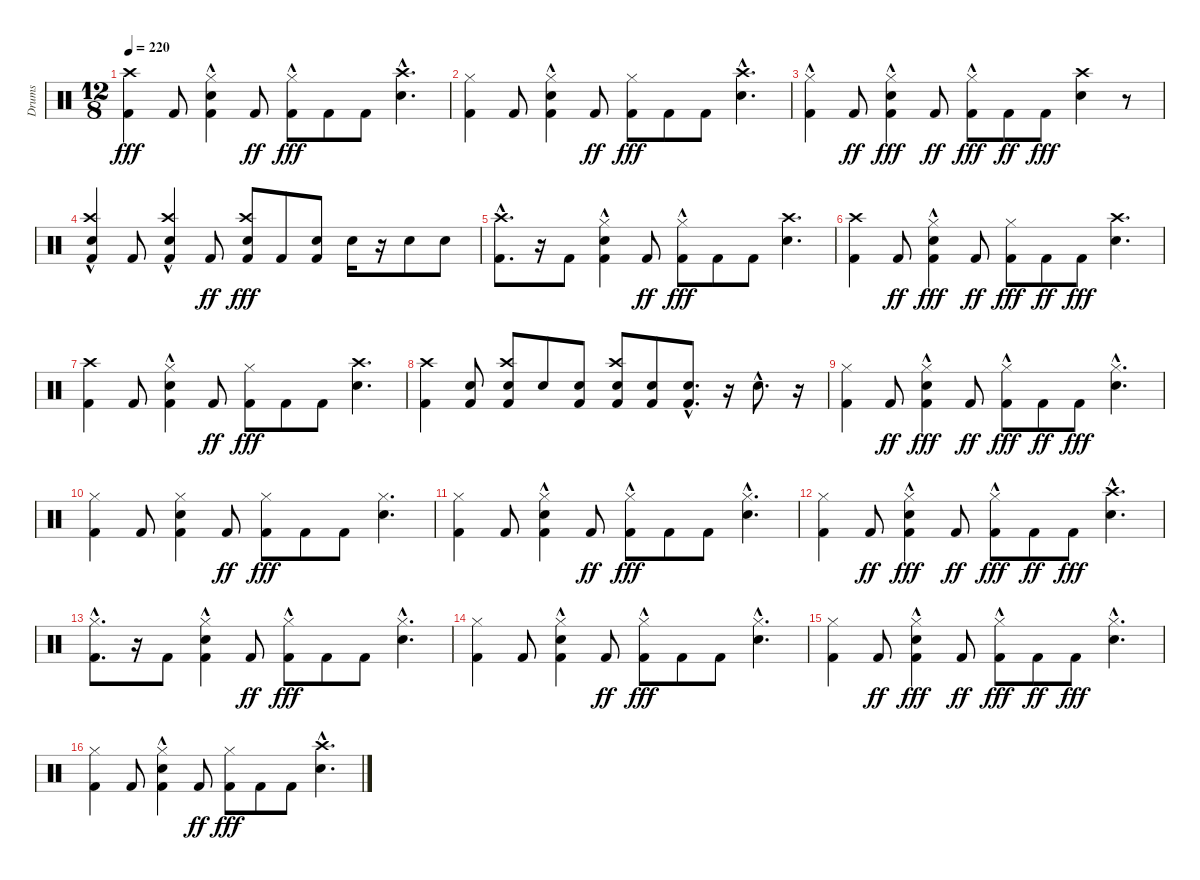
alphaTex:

\track ("Drums" "Drums") {instrument percussion}
\staff {score}
\articulation defaults
\ts (12 8)
\tempo 220
\clef neutral
\ks c
("Kick (hit) 2" "Crash high (hit)").4{dy fff} "Kick (hit) 2".8 ("Kick (hit) 2" "Snare (hit) 2" "Hi-Hat (closed)"{hac}).4 "Kick (hit) 2".8{dy ff} ("Kick (hit) 2" "Hi-Hat (closed)"{hac}).8{dy fff} "Kick (hit) 2".8 "Kick (hit) 2".8 ("Snare (hit) 2" "Crash high (hit)"{hac}).4{d} |
("Kick (hit) 2" "Hi-Hat (closed)").4 "Kick (hit) 2".8 ("Kick (hit) 2" "Snare (hit) 2" "Hi-Hat (closed)"{hac}).4 "Kick (hit) 2".8{dy ff} ("Kick (hit) 2" "Hi-Hat (closed)").8{dy fff} "Kick (hit) 2".8 "Kick (hit) 2".8 ("Snare (hit) 2" "Crash high (hit)"{hac}).4{d} |
("Kick (hit) 2" "Hi-Hat (closed)"{hac}).4 "Kick (hit) 2".8{dy ff} ("Kick (hit) 2" "Snare (hit) 2" "Hi-Hat (closed)"{hac}).4{dy fff} "Kick (hit) 2".8{dy ff} ("Kick (hit) 2" "Hi-Hat (closed)"{hac}).8{dy fff} "Kick (hit) 2".8{dy ff} "Kick (hit) 2".8{dy fff} ("Snare (hit) 2" "Crash high (hit)").4 r.8 |
("Kick (hit) 2" "Snare (hit) 2"{hac} "Crash high (hit)").4 "Kick (hit) 2".8 ("Kick (hit) 2" "Snare (hit) 2" "Crash high (hit)"{hac}).4 "Kick (hit) 2".8{dy ff} ("Kick (hit) 2" "Snare (hit) 2" "Crash high (hit)").8{dy fff} "Kick (hit) 2".8 ("Kick (hit) 2" "Snare (hit) 2").8 "Snare (hit) 2".16 r.16 "Snare (hit) 2".8 "Snare (hit) 2".8 |
("Kick (hit) 2" "Crash high (hit)"{hac}).8{d} r.16 "Kick (hit) 2".8 ("Kick (hit) 2" "Snare (hit) 2" "Hi-Hat (closed)"{hac}).4 "Kick (hit) 2".8{dy ff} ("Kick (hit) 2" "Hi-Hat (closed)"{hac}).8{dy fff} "Kick (hit) 2".8 "Kick (hit) 2".8 ("Snare (hit) 2" "Crash high (hit)").4{d} |
("Kick (hit) 2" "Crash high (hit)").4 "Kick (hit) 2".8{dy ff} ("Kick (hit) 2" "Snare (hit) 2" "Hi-Hat (closed)"{hac}).4{dy fff} "Kick (hit) 2".8{dy ff} ("Kick (hit) 2" "Hi-Hat (closed)").8{dy fff} "Kick (hit) 2".8{dy ff} "Kick (hit) 2".8{dy fff} ("Snare (hit) 2" "Crash high (hit)").4{d} |
("Kick (hit) 2" "Crash high (hit)").4 "Kick (hit) 2".8 ("Kick (hit) 2" "Snare (hit) 2" "Hi-Hat (closed)"{hac}).4 "Kick (hit) 2".8{dy ff} ("Kick (hit) 2" "Hi-Hat (closed)").8{dy fff} "Kick (hit) 2".8 "Kick (hit) 2".8 ("Snare (hit) 2" "Crash high (hit)").4{d} |
("Kick (hit) 2" "Crash high (hit)").4 ("Kick (hit) 2" "Snare (hit) 2").8 ("Kick (hit) 2" "Snare (hit) 2" "Crash high (hit)").8 "Snare (hit) 2".8 ("Kick (hit) 2" "Snare (hit) 2").8 ("Kick (hit) 2" "Snare (hit) 2" "Crash high (hit)").8 ("Kick (hit) 2" "Snare (hit) 2").8 ("Kick (hit) 2" "Snare (hit) 2"{hac}).8{d} r.16 "Snare (hit) 2"{hac}.8{d} r.16 |
("Kick (hit) 2" "Hi-Hat (closed)").4 "Kick (hit) 2".8{dy ff} ("Kick (hit) 2" "Snare (hit) 2" "Hi-Hat (closed)"{hac}).4{dy fff} "Kick (hit) 2".8{dy ff} ("Kick (hit) 2" "Hi-Hat (closed)"{hac}).8{dy fff} "Kick (hit) 2".8{dy ff} "Kick (hit) 2".8{dy fff} ("Snare (hit) 2" "Hi-Hat (closed)"{hac}).4{d} |
("Kick (hit) 2" "Hi-Hat (closed)").4 "Kick (hit) 2".8 ("Kick (hit) 2" "Snare (hit) 2" "Hi-Hat (closed)").4 "Kick (hit) 2".8{dy ff} ("Kick (hit) 2" "Hi-Hat (closed)").8{dy fff} "Kick (hit) 2".8 "Kick (hit) 2".8 ("Snare (hit) 2" "Hi-Hat (closed)").4{d} |
("Kick (hit) 2" "Hi-Hat (closed)").4 "Kick (hit) 2".8 ("Kick (hit) 2" "Snare (hit) 2" "Hi-Hat (closed)"{hac}).4 "Kick (hit) 2".8{dy ff} ("Kick (hit) 2" "Hi-Hat (closed)"{hac}).8{dy fff} "Kick (hit) 2".8 "Kick (hit) 2".8 ("Snare (hit) 2" "Hi-Hat (closed)"{hac}).4{d} |
("Kick (hit) 2" "Hi-Hat (closed)").4 "Kick (hit) 2".8{dy ff} ("Kick (hit) 2" "Snare (hit) 2" "Hi-Hat (closed)"{hac}).4{dy fff} "Kick (hit) 2".8{dy ff} ("Kick (hit) 2" "Hi-Hat (closed)"{hac}).8{dy fff} "Kick (hit) 2".8{dy ff} "Kick (hit) 2".8{dy fff} ("Snare (hit) 2" "Crash high (hit)"{hac}).4{d} |
("Kick (hit) 2" "Hi-Hat (closed)"{hac}).8{d} r.16 "Kick (hit) 2".8 ("Kick (hit) 2" "Snare (hit) 2" "Hi-Hat (closed)"{hac}).4 "Kick (hit) 2".8{dy ff} ("Kick (hit) 2" "Hi-Hat (closed)"{hac}).8{dy fff} "Kick (hit) 2".8 "Kick (hit) 2".8 ("Snare (hit) 2" "Hi-Hat (closed)"{hac}).4{d} |
("Kick (hit) 2" "Hi-Hat (closed)").4 "Kick (hit) 2".8 ("Kick (hit) 2" "Snare (hit) 2" "Hi-Hat (closed)"{hac}).4 "Kick (hit) 2".8{dy ff} ("Kick (hit) 2" "Hi-Hat (closed)"{hac}).8{dy fff} "Kick (hit) 2".8 "Kick (hit) 2".8 ("Snare (hit) 2" "Hi-Hat (closed)"{hac}).4{d} |
("Kick (hit) 2" "Hi-Hat (closed)").4 "Kick (hit) 2".8{dy ff} ("Kick (hit) 2" "Snare (hit) 2" "Hi-Hat (closed)"{hac}).4{dy fff} "Kick (hit) 2".8{dy ff} ("Kick (hit) 2" "Hi-Hat (closed)"{hac}).8{dy fff} "Kick (hit) 2".8{dy ff} "Kick (hit) 2".8{dy fff} ("Snare (hit) 2" "Hi-Hat (closed)"{hac}).4{d} |
("Kick (hit) 2" "Hi-Hat (closed)").4 "Kick (hit) 2".8 ("Kick (hit) 2" "Snare (hit) 2" "Hi-Hat (closed)"{hac}).4 "Kick (hit) 2".8{dy ff} ("Kick (hit) 2" "Hi-Hat (closed)").8{dy fff} "Kick (hit) 2".8 "Kick (hit) 2".8 ("Snare (hit) 2" "Crash high (hit)"{hac}).4{d}
